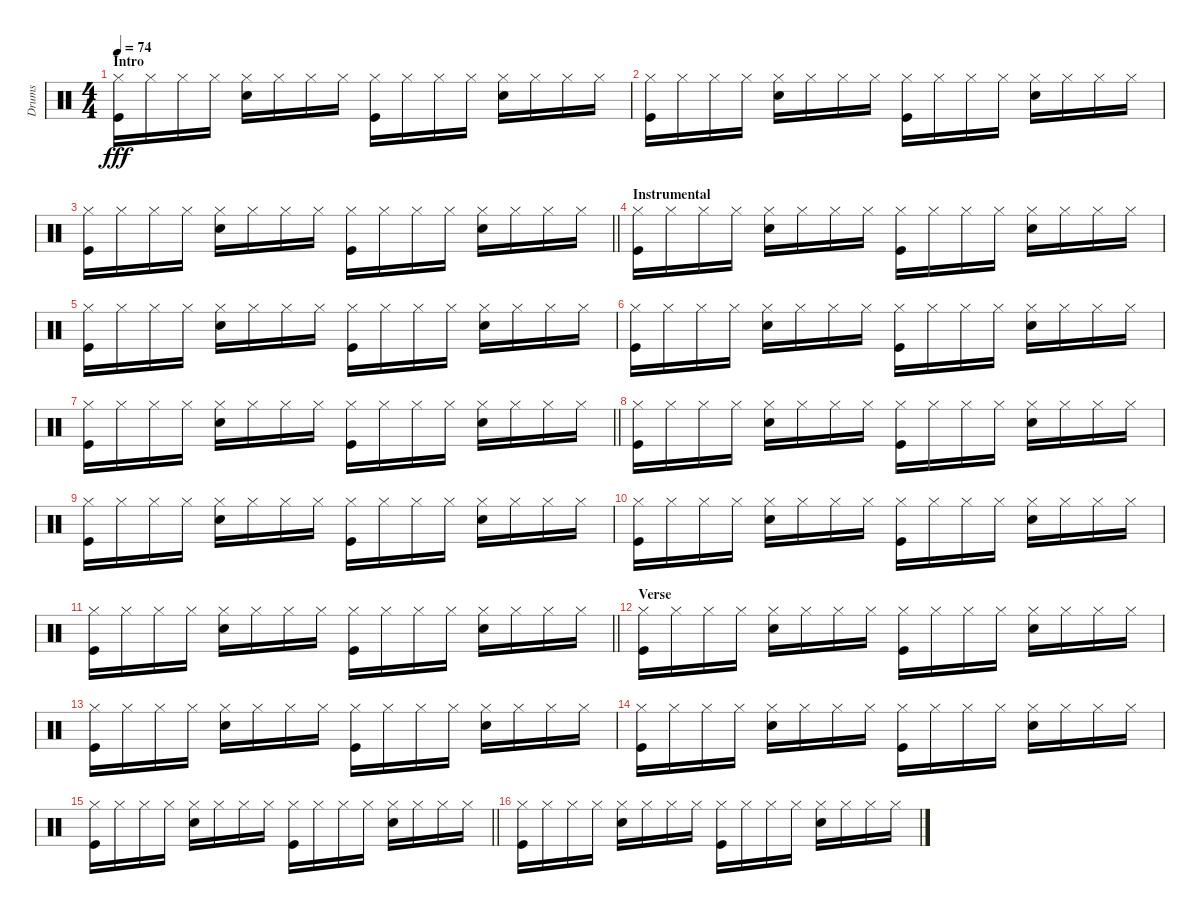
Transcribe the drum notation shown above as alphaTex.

\track ("Drums" "Drums") {instrument percussion}
\staff {score}
\articulation defaults
\ts (4 4)
\section ("" "Intro")
\tempo 74
\clef neutral
\ks c
("Hi-Hat (closed)" "Kick (hit)").16{dy fff} "Hi-Hat (closed)".16 "Hi-Hat (closed)".16 "Hi-Hat (closed)".16 ("Hi-Hat (closed)" "Snare (hit) 2").16 "Hi-Hat (closed)".16 "Hi-Hat (closed)".16 "Hi-Hat (closed)".16 ("Hi-Hat (closed)" "Kick (hit)").16 "Hi-Hat (closed)".16 "Hi-Hat (closed)".16 "Hi-Hat (closed)".16 ("Hi-Hat (closed)" "Snare (hit) 2").16 "Hi-Hat (closed)".16 "Hi-Hat (closed)".16 "Hi-Hat (closed)".16 |
("Hi-Hat (closed)" "Kick (hit)").16 "Hi-Hat (closed)".16 "Hi-Hat (closed)".16 "Hi-Hat (closed)".16 ("Hi-Hat (closed)" "Snare (hit) 2").16 "Hi-Hat (closed)".16 "Hi-Hat (closed)".16 "Hi-Hat (closed)".16 ("Hi-Hat (closed)" "Kick (hit)").16 "Hi-Hat (closed)".16 "Hi-Hat (closed)".16 "Hi-Hat (closed)".16 ("Hi-Hat (closed)" "Snare (hit) 2").16 "Hi-Hat (closed)".16 "Hi-Hat (closed)".16 "Hi-Hat (closed)".16 |
\barLineRight lightlight
("Hi-Hat (closed)" "Kick (hit)").16 "Hi-Hat (closed)".16 "Hi-Hat (closed)".16 "Hi-Hat (closed)".16 ("Hi-Hat (closed)" "Snare (hit) 2").16 "Hi-Hat (closed)".16 "Hi-Hat (closed)".16 "Hi-Hat (closed)".16 ("Hi-Hat (closed)" "Kick (hit)").16 "Hi-Hat (closed)".16 "Hi-Hat (closed)".16 "Hi-Hat (closed)".16 ("Hi-Hat (closed)" "Snare (hit) 2").16 "Hi-Hat (closed)".16 "Hi-Hat (closed)".16 "Hi-Hat (closed)".16 |
\section ("" "Instrumental")
("Hi-Hat (closed)" "Kick (hit)").16 "Hi-Hat (closed)".16 "Hi-Hat (closed)".16 "Hi-Hat (closed)".16 ("Hi-Hat (closed)" "Snare (hit) 2").16 "Hi-Hat (closed)".16 "Hi-Hat (closed)".16 "Hi-Hat (closed)".16 ("Hi-Hat (closed)" "Kick (hit)").16 "Hi-Hat (closed)".16 "Hi-Hat (closed)".16 "Hi-Hat (closed)".16 ("Hi-Hat (closed)" "Snare (hit) 2").16 "Hi-Hat (closed)".16 "Hi-Hat (closed)".16 "Hi-Hat (closed)".16 |
("Hi-Hat (closed)" "Kick (hit)").16 "Hi-Hat (closed)".16 "Hi-Hat (closed)".16 "Hi-Hat (closed)".16 ("Hi-Hat (closed)" "Snare (hit) 2").16 "Hi-Hat (closed)".16 "Hi-Hat (closed)".16 "Hi-Hat (closed)".16 ("Hi-Hat (closed)" "Kick (hit)").16 "Hi-Hat (closed)".16 "Hi-Hat (closed)".16 "Hi-Hat (closed)".16 ("Hi-Hat (closed)" "Snare (hit) 2").16 "Hi-Hat (closed)".16 "Hi-Hat (closed)".16 "Hi-Hat (closed)".16 |
("Hi-Hat (closed)" "Kick (hit)").16 "Hi-Hat (closed)".16 "Hi-Hat (closed)".16 "Hi-Hat (closed)".16 ("Hi-Hat (closed)" "Snare (hit) 2").16 "Hi-Hat (closed)".16 "Hi-Hat (closed)".16 "Hi-Hat (closed)".16 ("Hi-Hat (closed)" "Kick (hit)").16 "Hi-Hat (closed)".16 "Hi-Hat (closed)".16 "Hi-Hat (closed)".16 ("Hi-Hat (closed)" "Snare (hit) 2").16 "Hi-Hat (closed)".16 "Hi-Hat (closed)".16 "Hi-Hat (closed)".16 |
\barLineRight lightlight
("Hi-Hat (closed)" "Kick (hit)").16 "Hi-Hat (closed)".16 "Hi-Hat (closed)".16 "Hi-Hat (closed)".16 ("Hi-Hat (closed)" "Snare (hit) 2").16 "Hi-Hat (closed)".16 "Hi-Hat (closed)".16 "Hi-Hat (closed)".16 ("Hi-Hat (closed)" "Kick (hit)").16 "Hi-Hat (closed)".16 "Hi-Hat (closed)".16 "Hi-Hat (closed)".16 ("Hi-Hat (closed)" "Snare (hit) 2").16 "Hi-Hat (closed)".16 "Hi-Hat (closed)".16 "Hi-Hat (closed)".16 |
("Hi-Hat (closed)" "Kick (hit)").16 "Hi-Hat (closed)".16 "Hi-Hat (closed)".16 "Hi-Hat (closed)".16 ("Hi-Hat (closed)" "Snare (hit) 2").16 "Hi-Hat (closed)".16 "Hi-Hat (closed)".16 "Hi-Hat (closed)".16 ("Hi-Hat (closed)" "Kick (hit)").16 "Hi-Hat (closed)".16 "Hi-Hat (closed)".16 "Hi-Hat (closed)".16 ("Hi-Hat (closed)" "Snare (hit) 2").16 "Hi-Hat (closed)".16 "Hi-Hat (closed)".16 "Hi-Hat (closed)".16 |
("Hi-Hat (closed)" "Kick (hit)").16 "Hi-Hat (closed)".16 "Hi-Hat (closed)".16 "Hi-Hat (closed)".16 ("Hi-Hat (closed)" "Snare (hit) 2").16 "Hi-Hat (closed)".16 "Hi-Hat (closed)".16 "Hi-Hat (closed)".16 ("Hi-Hat (closed)" "Kick (hit)").16 "Hi-Hat (closed)".16 "Hi-Hat (closed)".16 "Hi-Hat (closed)".16 ("Hi-Hat (closed)" "Snare (hit) 2").16 "Hi-Hat (closed)".16 "Hi-Hat (closed)".16 "Hi-Hat (closed)".16 |
("Hi-Hat (closed)" "Kick (hit)").16 "Hi-Hat (closed)".16 "Hi-Hat (closed)".16 "Hi-Hat (closed)".16 ("Hi-Hat (closed)" "Snare (hit) 2").16 "Hi-Hat (closed)".16 "Hi-Hat (closed)".16 "Hi-Hat (closed)".16 ("Hi-Hat (closed)" "Kick (hit)").16 "Hi-Hat (closed)".16 "Hi-Hat (closed)".16 "Hi-Hat (closed)".16 ("Hi-Hat (closed)" "Snare (hit) 2").16 "Hi-Hat (closed)".16 "Hi-Hat (closed)".16 "Hi-Hat (closed)".16 |
\barLineRight lightlight
("Hi-Hat (closed)" "Kick (hit)").16 "Hi-Hat (closed)".16 "Hi-Hat (closed)".16 "Hi-Hat (closed)".16 ("Hi-Hat (closed)" "Snare (hit) 2").16 "Hi-Hat (closed)".16 "Hi-Hat (closed)".16 "Hi-Hat (closed)".16 ("Hi-Hat (closed)" "Kick (hit)").16 "Hi-Hat (closed)".16 "Hi-Hat (closed)".16 "Hi-Hat (closed)".16 ("Hi-Hat (closed)" "Snare (hit) 2").16 "Hi-Hat (closed)".16 "Hi-Hat (closed)".16 "Hi-Hat (closed)".16 |
\section ("" "Verse")
("Hi-Hat (closed)" "Kick (hit)").16 "Hi-Hat (closed)".16 "Hi-Hat (closed)".16 "Hi-Hat (closed)".16 ("Hi-Hat (closed)" "Snare (hit) 2").16 "Hi-Hat (closed)".16 "Hi-Hat (closed)".16 "Hi-Hat (closed)".16 ("Hi-Hat (closed)" "Kick (hit)").16 "Hi-Hat (closed)".16 "Hi-Hat (closed)".16 "Hi-Hat (closed)".16 ("Hi-Hat (closed)" "Snare (hit) 2").16 "Hi-Hat (closed)".16 "Hi-Hat (closed)".16 "Hi-Hat (closed)".16 |
("Hi-Hat (closed)" "Kick (hit)").16 "Hi-Hat (closed)".16 "Hi-Hat (closed)".16 "Hi-Hat (closed)".16 ("Hi-Hat (closed)" "Snare (hit) 2").16 "Hi-Hat (closed)".16 "Hi-Hat (closed)".16 "Hi-Hat (closed)".16 ("Hi-Hat (closed)" "Kick (hit)").16 "Hi-Hat (closed)".16 "Hi-Hat (closed)".16 "Hi-Hat (closed)".16 ("Hi-Hat (closed)" "Snare (hit) 2").16 "Hi-Hat (closed)".16 "Hi-Hat (closed)".16 "Hi-Hat (closed)".16 |
("Hi-Hat (closed)" "Kick (hit)").16 "Hi-Hat (closed)".16 "Hi-Hat (closed)".16 "Hi-Hat (closed)".16 ("Hi-Hat (closed)" "Snare (hit) 2").16 "Hi-Hat (closed)".16 "Hi-Hat (closed)".16 "Hi-Hat (closed)".16 ("Hi-Hat (closed)" "Kick (hit)").16 "Hi-Hat (closed)".16 "Hi-Hat (closed)".16 "Hi-Hat (closed)".16 ("Hi-Hat (closed)" "Snare (hit) 2").16 "Hi-Hat (closed)".16 "Hi-Hat (closed)".16 "Hi-Hat (closed)".16 |
\barLineRight lightlight
("Hi-Hat (closed)" "Kick (hit)").16 "Hi-Hat (closed)".16 "Hi-Hat (closed)".16 "Hi-Hat (closed)".16 ("Hi-Hat (closed)" "Snare (hit) 2").16 "Hi-Hat (closed)".16 "Hi-Hat (closed)".16 "Hi-Hat (closed)".16 ("Hi-Hat (closed)" "Kick (hit)").16 "Hi-Hat (closed)".16 "Hi-Hat (closed)".16 "Hi-Hat (closed)".16 ("Hi-Hat (closed)" "Snare (hit) 2").16 "Hi-Hat (closed)".16 "Hi-Hat (closed)".16 "Hi-Hat (closed)".16 |
("Hi-Hat (closed)" "Kick (hit)").16 "Hi-Hat (closed)".16 "Hi-Hat (closed)".16 "Hi-Hat (closed)".16 ("Hi-Hat (closed)" "Snare (hit) 2").16 "Hi-Hat (closed)".16 "Hi-Hat (closed)".16 "Hi-Hat (closed)".16 ("Hi-Hat (closed)" "Kick (hit)").16 "Hi-Hat (closed)".16 "Hi-Hat (closed)".16 "Hi-Hat (closed)".16 ("Hi-Hat (closed)" "Snare (hit) 2").16 "Hi-Hat (closed)".16 "Hi-Hat (closed)".16 "Hi-Hat (closed)".16
